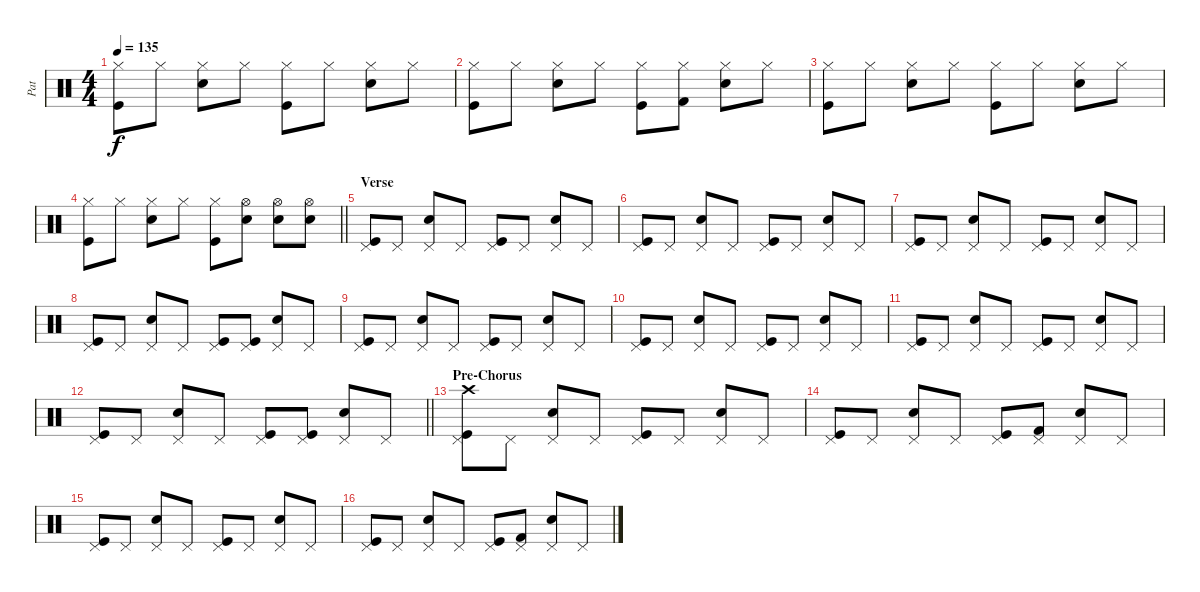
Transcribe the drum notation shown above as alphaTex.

\track ("Pat" "Pat") {instrument percussion}
\staff {score}
\articulation defaults
\ts (4 4)
\tempo 135
\clef neutral
\ks c
("Hi-Hat (closed)" "Kick (hit)").8{dy f} "Hi-Hat (closed)".8 ("Hi-Hat (closed)" "Snare (hit) 2").8 "Hi-Hat (closed)".8 ("Hi-Hat (closed)" "Kick (hit)").8 "Hi-Hat (closed)".8 ("Hi-Hat (closed)" "Snare (hit) 2").8 "Hi-Hat (closed)".8 |
("Hi-Hat (closed)" "Kick (hit)").8 "Hi-Hat (closed)".8 ("Hi-Hat (closed)" "Snare (hit) 2").8 "Hi-Hat (closed)".8 ("Hi-Hat (closed)" "Kick (hit)").8 ("Hi-Hat (closed)" "Kick (hit) 2").8 ("Hi-Hat (closed)" "Snare (hit) 2").8 "Hi-Hat (closed)".8 |
("Hi-Hat (closed)" "Kick (hit)").8 "Hi-Hat (closed)".8 ("Hi-Hat (closed)" "Snare (hit) 2").8 "Hi-Hat (closed)".8 ("Hi-Hat (closed)" "Kick (hit)").8 "Hi-Hat (closed)".8 ("Hi-Hat (closed)" "Snare (hit) 2").8 "Hi-Hat (closed)".8 |
\barLineRight lightlight
("Hi-Hat (closed)" "Kick (hit)").8 "Hi-Hat (closed)".8 ("Hi-Hat (closed)" "Snare (hit) 2").8 "Hi-Hat (closed)".8 ("Hi-Hat (closed)" "Kick (hit)").8 ("Hi-Hat (open)" "Snare (hit) 2").8 ("Hi-Hat (open)" "Snare (hit) 2").8 ("Hi-Hat (open)" "Snare (hit) 2").8 |
\section ("" "Verse")
("Pedal Hi-Hat (hit)" "Kick (hit)").8 "Pedal Hi-Hat (hit)".8 ("Pedal Hi-Hat (hit)" "Snare (hit) 2").8 "Pedal Hi-Hat (hit)".8 ("Pedal Hi-Hat (hit)" "Kick (hit)").8 "Pedal Hi-Hat (hit)".8 ("Pedal Hi-Hat (hit)" "Snare (hit) 2").8 "Pedal Hi-Hat (hit)".8 |
("Pedal Hi-Hat (hit)" "Kick (hit)").8 "Pedal Hi-Hat (hit)".8 ("Pedal Hi-Hat (hit)" "Snare (hit) 2").8 "Pedal Hi-Hat (hit)".8 ("Pedal Hi-Hat (hit)" "Kick (hit)").8 "Pedal Hi-Hat (hit)".8 ("Pedal Hi-Hat (hit)" "Snare (hit) 2").8 "Pedal Hi-Hat (hit)".8 |
("Pedal Hi-Hat (hit)" "Kick (hit)").8 "Pedal Hi-Hat (hit)".8 ("Pedal Hi-Hat (hit)" "Snare (hit) 2").8 "Pedal Hi-Hat (hit)".8 ("Pedal Hi-Hat (hit)" "Kick (hit)").8 "Pedal Hi-Hat (hit)".8 ("Pedal Hi-Hat (hit)" "Snare (hit) 2").8 "Pedal Hi-Hat (hit)".8 |
("Pedal Hi-Hat (hit)" "Kick (hit)").8 "Pedal Hi-Hat (hit)".8 ("Pedal Hi-Hat (hit)" "Snare (hit) 2").8 "Pedal Hi-Hat (hit)".8 ("Pedal Hi-Hat (hit)" "Kick (hit)").8 ("Pedal Hi-Hat (hit)" "Kick (hit)").8 ("Pedal Hi-Hat (hit)" "Snare (hit) 2").8 "Pedal Hi-Hat (hit)".8 |
("Pedal Hi-Hat (hit)" "Kick (hit)").8 "Pedal Hi-Hat (hit)".8 ("Pedal Hi-Hat (hit)" "Snare (hit) 2").8 "Pedal Hi-Hat (hit)".8 ("Pedal Hi-Hat (hit)" "Kick (hit)").8 "Pedal Hi-Hat (hit)".8 ("Pedal Hi-Hat (hit)" "Snare (hit) 2").8 "Pedal Hi-Hat (hit)".8 |
("Pedal Hi-Hat (hit)" "Kick (hit)").8 "Pedal Hi-Hat (hit)".8 ("Pedal Hi-Hat (hit)" "Snare (hit) 2").8 "Pedal Hi-Hat (hit)".8 ("Pedal Hi-Hat (hit)" "Kick (hit)").8 "Pedal Hi-Hat (hit)".8 ("Pedal Hi-Hat (hit)" "Snare (hit) 2").8 "Pedal Hi-Hat (hit)".8 |
("Pedal Hi-Hat (hit)" "Kick (hit)").8 "Pedal Hi-Hat (hit)".8 ("Pedal Hi-Hat (hit)" "Snare (hit) 2").8 "Pedal Hi-Hat (hit)".8 ("Pedal Hi-Hat (hit)" "Kick (hit)").8 "Pedal Hi-Hat (hit)".8 ("Pedal Hi-Hat (hit)" "Snare (hit) 2").8 "Pedal Hi-Hat (hit)".8 |
\barLineRight lightlight
("Pedal Hi-Hat (hit)" "Kick (hit)").8 "Pedal Hi-Hat (hit)".8 ("Pedal Hi-Hat (hit)" "Snare (hit) 2").8 "Pedal Hi-Hat (hit)".8 ("Pedal Hi-Hat (hit)" "Kick (hit)").8 ("Pedal Hi-Hat (hit)" "Kick (hit)").8 ("Pedal Hi-Hat (hit)" "Snare (hit) 2").8 "Pedal Hi-Hat (hit)".8 |
\section ("" "Pre-Chorus")
("Crash high (hit)" "Pedal Hi-Hat (hit)" "Kick (hit)").8 "Pedal Hi-Hat (hit)".8 ("Pedal Hi-Hat (hit)" "Snare (hit) 2").8 "Pedal Hi-Hat (hit)".8 ("Pedal Hi-Hat (hit)" "Kick (hit)").8 "Pedal Hi-Hat (hit)".8 ("Pedal Hi-Hat (hit)" "Snare (hit) 2").8 "Pedal Hi-Hat (hit)".8 |
("Pedal Hi-Hat (hit)" "Kick (hit)").8 "Pedal Hi-Hat (hit)".8 ("Pedal Hi-Hat (hit)" "Snare (hit) 2").8 "Pedal Hi-Hat (hit)".8 ("Pedal Hi-Hat (hit)" "Kick (hit)").8 ("Pedal Hi-Hat (hit)" "Kick (hit) 2").8 ("Pedal Hi-Hat (hit)" "Snare (hit) 2").8 "Pedal Hi-Hat (hit)".8 |
("Pedal Hi-Hat (hit)" "Kick (hit)").8 "Pedal Hi-Hat (hit)".8 ("Pedal Hi-Hat (hit)" "Snare (hit) 2").8 "Pedal Hi-Hat (hit)".8 ("Pedal Hi-Hat (hit)" "Kick (hit)").8 "Pedal Hi-Hat (hit)".8 ("Pedal Hi-Hat (hit)" "Snare (hit) 2").8 "Pedal Hi-Hat (hit)".8 |
("Pedal Hi-Hat (hit)" "Kick (hit)").8 "Pedal Hi-Hat (hit)".8 ("Pedal Hi-Hat (hit)" "Snare (hit) 2").8 "Pedal Hi-Hat (hit)".8 ("Pedal Hi-Hat (hit)" "Kick (hit)").8 ("Pedal Hi-Hat (hit)" "Kick (hit) 2").8 ("Pedal Hi-Hat (hit)" "Snare (hit) 2").8 "Pedal Hi-Hat (hit)".8
